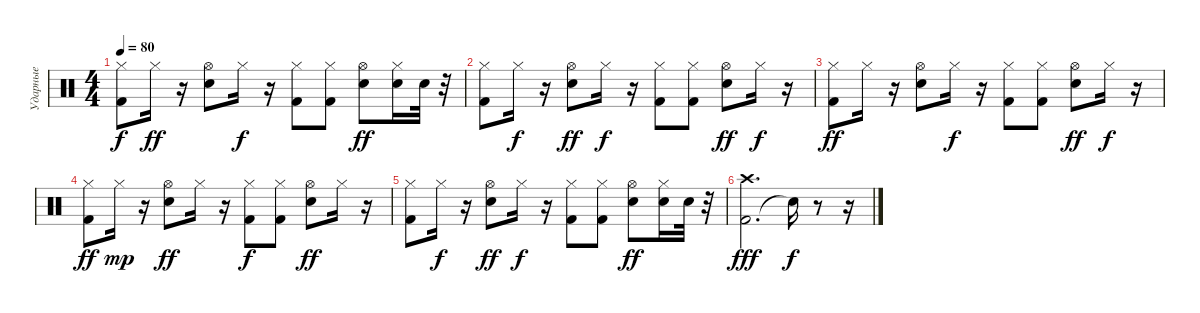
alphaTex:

\track ("Ударные" "Ударные") {instrument percussion}
\staff {score}
\articulation defaults
\ts (4 4)
\tempo 80
\clef neutral
\ks c
("Kick (hit) 2" "Hi-Hat (closed)").8{dy f} "Hi-Hat (closed)".16{dy ff} r.16 ("Electric Snare (hit)" "Hi-Hat (open)").8 "Hi-Hat (closed)".16{dy f} r.16 ("Kick (hit) 2" "Hi-Hat (closed)").8 ("Kick (hit) 2" "Hi-Hat (closed)").8 ("Electric Snare (hit)" "Hi-Hat (open)").8{dy ff} ("Hi-Hat (closed)" "Electric Snare (hit)").16 "Electric Snare (hit)".32 r.32 |
("Kick (hit) 2" "Hi-Hat (closed)").8 "Hi-Hat (closed)".16{dy f} r.16 ("Electric Snare (hit)" "Hi-Hat (open)").8{dy ff} "Hi-Hat (closed)".16{dy f} r.16 ("Kick (hit) 2" "Hi-Hat (closed)").8 ("Kick (hit) 2" "Hi-Hat (closed)").8 ("Electric Snare (hit)" "Hi-Hat (open)").8{dy ff} "Hi-Hat (closed)".16{dy f} r.16 |
("Kick (hit) 2" "Hi-Hat (closed)").8{dy ff} "Hi-Hat (closed)".16 r.16 ("Electric Snare (hit)" "Hi-Hat (open)").8 "Hi-Hat (closed)".16{dy f} r.16 ("Kick (hit) 2" "Hi-Hat (closed)").8 ("Kick (hit) 2" "Hi-Hat (closed)").8 ("Electric Snare (hit)" "Hi-Hat (open)").8{dy ff} "Hi-Hat (closed)".16{dy f} r.16 |
("Kick (hit) 2" "Hi-Hat (closed)").8{dy ff} "Hi-Hat (closed)".16{dy mp} r.16 ("Electric Snare (hit)" "Hi-Hat (open)").8{dy ff} "Hi-Hat (closed)".16 r.16 ("Kick (hit) 2" "Hi-Hat (closed)").8{dy f} ("Kick (hit) 2" "Hi-Hat (closed)").8 ("Electric Snare (hit)" "Hi-Hat (open)").8{dy ff} "Hi-Hat (closed)".16 r.16 |
("Kick (hit) 2" "Hi-Hat (closed)").8 "Hi-Hat (closed)".16{dy f} r.16 ("Electric Snare (hit)" "Hi-Hat (open)").8{dy ff} "Hi-Hat (closed)".16{dy f} r.16 ("Kick (hit) 2" "Hi-Hat (closed)").8 ("Kick (hit) 2" "Hi-Hat (closed)").8 ("Electric Snare (hit)" "Hi-Hat (open)").8{dy ff} ("Hi-Hat (closed)" "Electric Snare (hit)").16 "Electric Snare (hit)".32 r.32 |
("Kick (hit) 2" "Crash high (hit)").2{d dy fff} "Snare (hit)"{t}.16{dy f} r.8 r.16
